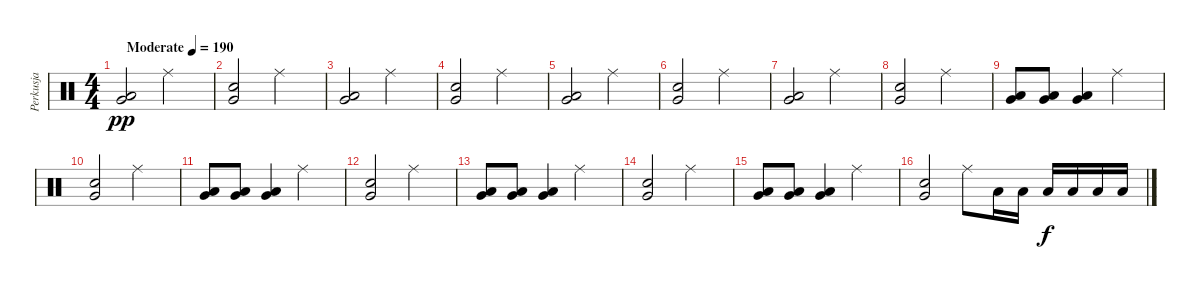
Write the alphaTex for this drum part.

\track ("Perkusja" "Perkusja") {instrument percussion}
\staff {score}
\articulation defaults
\ts (4 4)
\tempo (190 "Moderate")
\clef neutral
\ks c
("Very Low Tom (hit)" "Low Floor Tom (hit)").2{dy pp} "Ride (middle)".2 |
("Snare (hit) 2" "Very Low Tom (hit)").2 "Ride (middle)".2 |
("Very Low Tom (hit)" "Low Floor Tom (hit)").2 "Ride (middle)".2 |
("Snare (hit) 2" "Very Low Tom (hit)").2 "Ride (middle)".2 |
("Very Low Tom (hit)" "Low Floor Tom (hit)").2 "Ride (middle)".2 |
("Snare (hit) 2" "Very Low Tom (hit)").2 "Ride (middle)".2 |
("Very Low Tom (hit)" "Low Floor Tom (hit)").2 "Ride (middle)".2 |
("Snare (hit) 2" "Very Low Tom (hit)").2 "Ride (middle)".2 |
("Very Low Tom (hit)" "Low Floor Tom (hit)").8 ("Very Low Tom (hit)" "Low Floor Tom (hit)").8 ("Very Low Tom (hit)" "Low Floor Tom (hit)").4 "Ride (middle)".2 |
("Snare (hit) 2" "Very Low Tom (hit)").2 "Ride (middle)".2 |
("Very Low Tom (hit)" "Low Floor Tom (hit)").8 ("Very Low Tom (hit)" "Low Floor Tom (hit)").8 ("Very Low Tom (hit)" "Low Floor Tom (hit)").4 "Ride (middle)".2 |
("Snare (hit) 2" "Very Low Tom (hit)").2 "Ride (middle)".2 |
("Very Low Tom (hit)" "Low Floor Tom (hit)").8 ("Very Low Tom (hit)" "Low Floor Tom (hit)").8 ("Very Low Tom (hit)" "Low Floor Tom (hit)").4 "Ride (middle)".2 |
("Snare (hit) 2" "Very Low Tom (hit)").2 "Ride (middle)".2 |
("Very Low Tom (hit)" "Low Floor Tom (hit)").8 ("Very Low Tom (hit)" "Low Floor Tom (hit)").8 ("Very Low Tom (hit)" "Low Floor Tom (hit)").4 "Ride (middle)".2 |
("Snare (hit) 2" "Very Low Tom (hit)").2 "Ride (middle)".8 "Low Floor Tom (hit)".16 "Low Floor Tom (hit)".16 "Low Floor Tom (hit)".16{dy f} "Low Floor Tom (hit)".16 "Low Floor Tom (hit)".16 "Low Floor Tom (hit)".16
